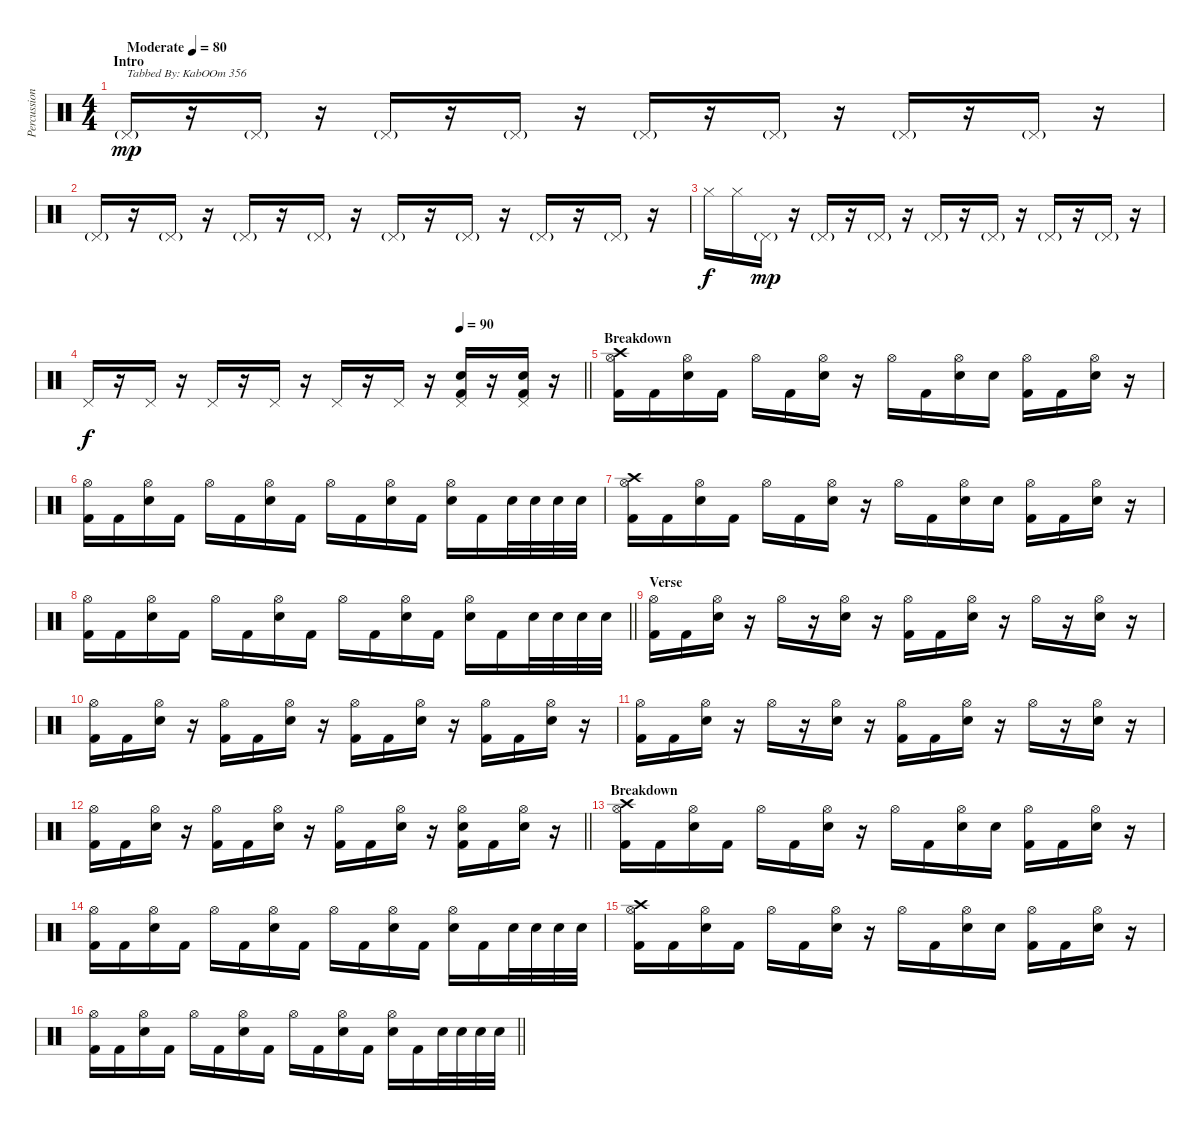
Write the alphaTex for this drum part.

\track ("Percussion" "Percussion") {instrument percussion}
\staff {score}
\articulation defaults
\ts (4 4)
\section ("" "Intro")
\tempo (80 "Moderate")
\clef neutral
\ks c "Pedal Hi-Hat (hit)"{g}.16{txt "Tabbed By: KabOOm 356" dy mp volume 2}
r.16 "Pedal Hi-Hat (hit)"{g}.16 r.16 "Pedal Hi-Hat (hit)"{g}.16 r.16 "Pedal Hi-Hat (hit)"{g}.16 r.16 "Pedal Hi-Hat (hit)"{g}.16 r.16 "Pedal Hi-Hat (hit)"{g}.16 r.16 "Pedal Hi-Hat (hit)"{g}.16 r.16 "Pedal Hi-Hat (hit)"{g}.16 r.16 |
"Pedal Hi-Hat (hit)"{g}.16 r.16 "Pedal Hi-Hat (hit)"{g}.16 r.16 "Pedal Hi-Hat (hit)"{g}.16 r.16 "Pedal Hi-Hat (hit)"{g}.16 r.16 "Pedal Hi-Hat (hit)"{g}.16 r.16 "Pedal Hi-Hat (hit)"{g}.16 r.16 "Pedal Hi-Hat (hit)"{g}.16 r.16 "Pedal Hi-Hat (hit)"{g}.16 r.16 |
"Hi-Hat (closed)".16{dy f} "Hi-Hat (closed)".16 "Pedal Hi-Hat (hit)"{g}.16{dy mp} r.16 "Pedal Hi-Hat (hit)"{g}.16 r.16 "Pedal Hi-Hat (hit)"{g}.16 r.16 "Pedal Hi-Hat (hit)"{g}.16 r.16 "Pedal Hi-Hat (hit)"{g}.16 r.16 "Pedal Hi-Hat (hit)"{g}.16 r.16 "Pedal Hi-Hat (hit)"{g}.16 r.16 |
\tempo (90 0.75)
\barLineRight lightlight "Pedal Hi-Hat (hit)".16{dy f}
r.16 "Pedal Hi-Hat (hit)".16 r.16 "Pedal Hi-Hat (hit)".16 r.16 "Pedal Hi-Hat (hit)".16 r.16 "Pedal Hi-Hat (hit)".16 r.16 "Pedal Hi-Hat (hit)".16 r.16 ("Pedal Hi-Hat (hit)" "Electric Snare (hit)" "Kick (hit) 2").16{volume 12} r.16 ("Pedal Hi-Hat (hit)" "Electric Snare (hit)" "Kick (hit) 2").16 r.16 |
\section ("" "Breakdown")
("Crash high (hit)" "Hi-Hat (open)" "Kick (hit) 2").16 "Kick (hit) 2".16 ("Hi-Hat (open)" "Electric Snare (hit)").16 "Kick (hit) 2".16 "Hi-Hat (open)".16 "Kick (hit) 2".16 ("Hi-Hat (open)" "Electric Snare (hit)").16 r.16 "Hi-Hat (open)".16 "Kick (hit) 2".16 ("Hi-Hat (open)" "Electric Snare (hit)").16 "Electric Snare (hit)".16 ("Hi-Hat (open)" "Kick (hit) 2").16 "Kick (hit) 2".16 ("Hi-Hat (open)" "Electric Snare (hit)").16 r.16 |
("Hi-Hat (open)" "Kick (hit) 2").16 "Kick (hit) 2".16 ("Hi-Hat (open)" "Electric Snare (hit)").16 "Kick (hit) 2".16 "Hi-Hat (open)".16 "Kick (hit) 2".16 ("Hi-Hat (open)" "Electric Snare (hit)").16 "Kick (hit) 2".16 "Hi-Hat (open)".16 "Kick (hit) 2".16 ("Hi-Hat (open)" "Electric Snare (hit)").16 "Kick (hit) 2".16 ("Hi-Hat (open)" "Electric Snare (hit)").16 "Kick (hit) 2".16 "Electric Snare (hit)".32 "Electric Snare (hit)".32 "Electric Snare (hit)".32 "Electric Snare (hit)".32 |
("Crash high (hit)" "Hi-Hat (open)" "Kick (hit) 2").16 "Kick (hit) 2".16 ("Hi-Hat (open)" "Electric Snare (hit)").16 "Kick (hit) 2".16 "Hi-Hat (open)".16 "Kick (hit) 2".16 ("Hi-Hat (open)" "Electric Snare (hit)").16 r.16 "Hi-Hat (open)".16 "Kick (hit) 2".16 ("Hi-Hat (open)" "Electric Snare (hit)").16 "Electric Snare (hit)".16 ("Hi-Hat (open)" "Kick (hit) 2").16 "Kick (hit) 2".16 ("Hi-Hat (open)" "Electric Snare (hit)").16 r.16 |
\barLineRight lightlight
("Hi-Hat (open)" "Kick (hit) 2").16 "Kick (hit) 2".16 ("Hi-Hat (open)" "Electric Snare (hit)").16 "Kick (hit) 2".16 "Hi-Hat (open)".16 "Kick (hit) 2".16 ("Hi-Hat (open)" "Electric Snare (hit)").16 "Kick (hit) 2".16 "Hi-Hat (open)".16 "Kick (hit) 2".16 ("Hi-Hat (open)" "Electric Snare (hit)").16 "Kick (hit) 2".16 ("Hi-Hat (open)" "Electric Snare (hit)").16 "Kick (hit) 2".16 "Electric Snare (hit)".32 "Electric Snare (hit)".32 "Electric Snare (hit)".32 "Electric Snare (hit)".32 |
\section ("" "Verse")
("Hi-Hat (open)" "Kick (hit) 2").16 "Kick (hit) 2".16 ("Hi-Hat (open)" "Electric Snare (hit)").16 r.16 "Hi-Hat (open)".16 r.16 ("Hi-Hat (open)" "Electric Snare (hit)").16 r.16 ("Hi-Hat (open)" "Kick (hit) 2").16 "Kick (hit) 2".16 ("Hi-Hat (open)" "Electric Snare (hit)").16 r.16 "Hi-Hat (open)".16 r.16 ("Hi-Hat (open)" "Electric Snare (hit)").16 r.16 |
("Hi-Hat (open)" "Kick (hit) 2").16 "Kick (hit) 2".16 ("Hi-Hat (open)" "Electric Snare (hit)").16 r.16 ("Hi-Hat (open)" "Kick (hit) 2").16 "Kick (hit) 2".16 ("Hi-Hat (open)" "Electric Snare (hit)").16 r.16 ("Hi-Hat (open)" "Kick (hit) 2").16 "Kick (hit) 2".16 ("Hi-Hat (open)" "Electric Snare (hit)").16 r.16 ("Hi-Hat (open)" "Kick (hit) 2").16 "Kick (hit) 2".16 ("Hi-Hat (open)" "Electric Snare (hit)").16 r.16 |
("Hi-Hat (open)" "Kick (hit) 2").16 "Kick (hit) 2".16 ("Hi-Hat (open)" "Electric Snare (hit)").16 r.16 "Hi-Hat (open)".16 r.16 ("Hi-Hat (open)" "Electric Snare (hit)").16 r.16 ("Hi-Hat (open)" "Kick (hit) 2").16 "Kick (hit) 2".16 ("Hi-Hat (open)" "Electric Snare (hit)").16 r.16 "Hi-Hat (open)".16 r.16 ("Hi-Hat (open)" "Electric Snare (hit)").16 r.16 |
\barLineRight lightlight
("Hi-Hat (open)" "Kick (hit) 2").16 "Kick (hit) 2".16 ("Hi-Hat (open)" "Electric Snare (hit)").16 r.16 ("Hi-Hat (open)" "Kick (hit) 2").16 "Kick (hit) 2".16 ("Hi-Hat (open)" "Electric Snare (hit)").16 r.16 ("Hi-Hat (open)" "Kick (hit) 2").16 "Kick (hit) 2".16 ("Hi-Hat (open)" "Electric Snare (hit)").16 r.16 ("Hi-Hat (open)" "Electric Snare (hit)" "Kick (hit) 2").16 "Kick (hit) 2".16 ("Hi-Hat (open)" "Electric Snare (hit)").16 r.16 |
\section ("" "Breakdown")
("Crash high (hit)" "Hi-Hat (open)" "Kick (hit) 2").16 "Kick (hit) 2".16 ("Hi-Hat (open)" "Electric Snare (hit)").16 "Kick (hit) 2".16 "Hi-Hat (open)".16 "Kick (hit) 2".16 ("Hi-Hat (open)" "Electric Snare (hit)").16 r.16 "Hi-Hat (open)".16 "Kick (hit) 2".16 ("Hi-Hat (open)" "Electric Snare (hit)").16 "Electric Snare (hit)".16 ("Hi-Hat (open)" "Kick (hit) 2").16 "Kick (hit) 2".16 ("Hi-Hat (open)" "Electric Snare (hit)").16 r.16 |
("Hi-Hat (open)" "Kick (hit) 2").16 "Kick (hit) 2".16 ("Hi-Hat (open)" "Electric Snare (hit)").16 "Kick (hit) 2".16 "Hi-Hat (open)".16 "Kick (hit) 2".16 ("Hi-Hat (open)" "Electric Snare (hit)").16 "Kick (hit) 2".16 "Hi-Hat (open)".16 "Kick (hit) 2".16 ("Hi-Hat (open)" "Electric Snare (hit)").16 "Kick (hit) 2".16 ("Hi-Hat (open)" "Electric Snare (hit)").16 "Kick (hit) 2".16 "Electric Snare (hit)".32 "Electric Snare (hit)".32 "Electric Snare (hit)".32 "Electric Snare (hit)".32 |
("Crash high (hit)" "Hi-Hat (open)" "Kick (hit) 2").16 "Kick (hit) 2".16 ("Hi-Hat (open)" "Electric Snare (hit)").16 "Kick (hit) 2".16 "Hi-Hat (open)".16 "Kick (hit) 2".16 ("Hi-Hat (open)" "Electric Snare (hit)").16 r.16 "Hi-Hat (open)".16 "Kick (hit) 2".16 ("Hi-Hat (open)" "Electric Snare (hit)").16 "Electric Snare (hit)".16 ("Hi-Hat (open)" "Kick (hit) 2").16 "Kick (hit) 2".16 ("Hi-Hat (open)" "Electric Snare (hit)").16 r.16 |
\barLineRight lightlight
("Hi-Hat (open)" "Kick (hit) 2").16 "Kick (hit) 2".16 ("Hi-Hat (open)" "Electric Snare (hit)").16 "Kick (hit) 2".16 "Hi-Hat (open)".16 "Kick (hit) 2".16 ("Hi-Hat (open)" "Electric Snare (hit)").16 "Kick (hit) 2".16 "Hi-Hat (open)".16 "Kick (hit) 2".16 ("Hi-Hat (open)" "Electric Snare (hit)").16 "Kick (hit) 2".16 ("Hi-Hat (open)" "Electric Snare (hit)").16 "Kick (hit) 2".16 "Electric Snare (hit)".32 "Electric Snare (hit)".32 "Electric Snare (hit)".32 "Electric Snare (hit)".32
